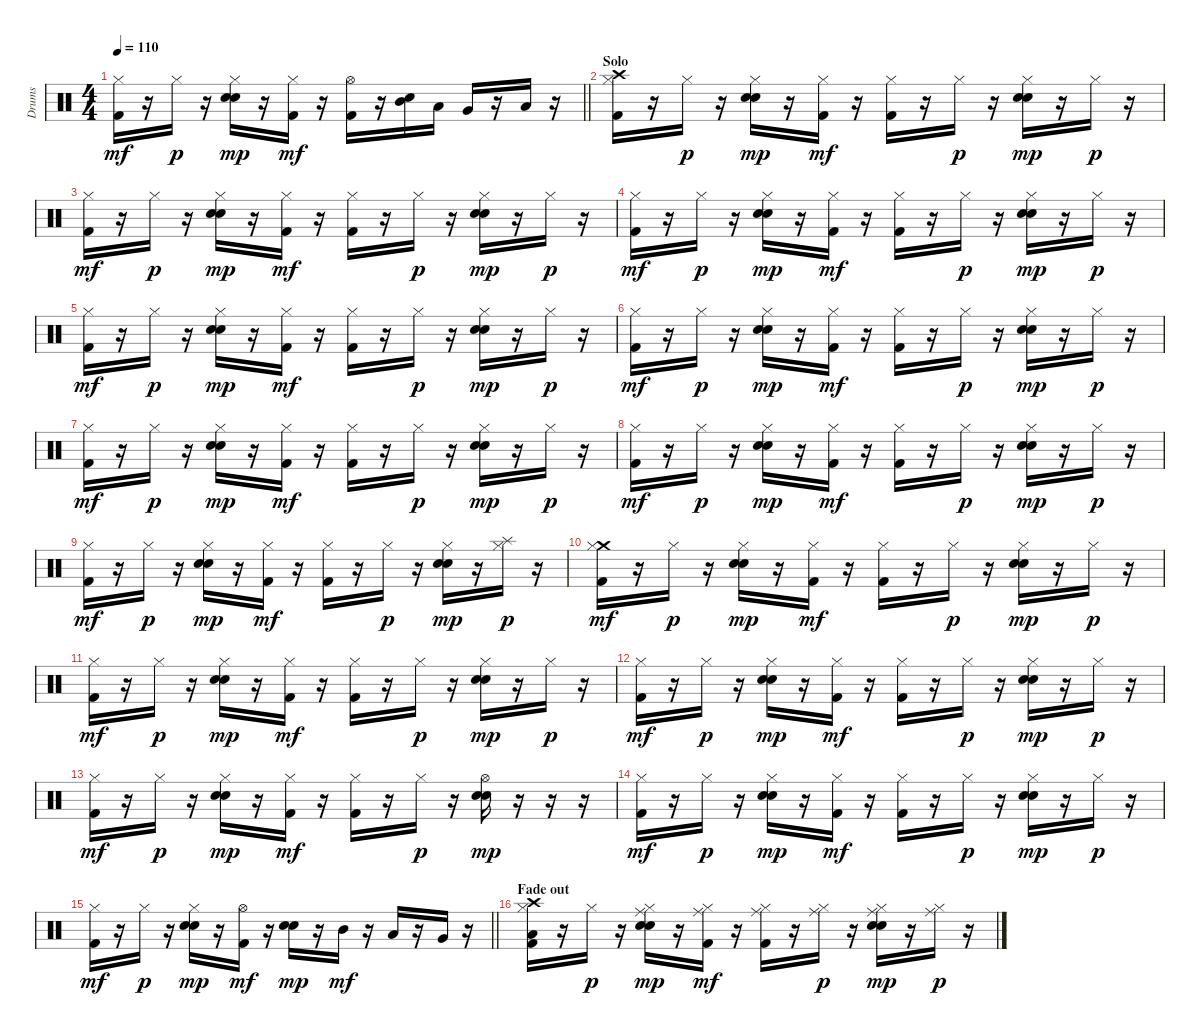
\track ("Drums" "Drums") {instrument percussion}
\staff {score}
\articulation defaults
\ts (4 4)
\tempo 110
\clef neutral
\barLineRight lightlight
\ks c
("Hi-Hat (closed)" "Kick (hit) 2").16{dy mf} r.16 "Hi-Hat (closed)".16{dy p} r.16 ("Hi-Hat (closed)" "Electric Snare (hit)" "Snare (hit) 2").16{dy mp} r.16 ("Hi-Hat (closed)" "Kick (hit) 2").16{dy mf} r.16 ("Hi-Hat (open)" "Kick (hit) 2").16 r.16 ("Electric Snare (hit)" "Mid Tom (hit)").16 "Low Tom (hit)".16 "Very Low Tom (hit)".16 r.16 "Low Floor Tom (hit)".16 r.16 |
\section ("" "Solo")
("Crash high (hit)" "Hi-Hat (closed)" "Kick (hit) 2").16 r.16 "Hi-Hat (closed)".16{dy p} r.16 ("Hi-Hat (closed)" "Electric Snare (hit)" "Snare (hit) 2").16{dy mp} r.16 ("Hi-Hat (closed)" "Kick (hit) 2").16{dy mf} r.16 ("Hi-Hat (closed)" "Kick (hit) 2").16 r.16 "Hi-Hat (closed)".16{dy p} r.16 ("Hi-Hat (closed)" "Electric Snare (hit)" "Snare (hit) 2").16{dy mp} r.16 "Hi-Hat (closed)".16{dy p} r.16 |
("Hi-Hat (closed)" "Kick (hit) 2").16{dy mf} r.16 "Hi-Hat (closed)".16{dy p} r.16 ("Hi-Hat (closed)" "Electric Snare (hit)" "Snare (hit) 2").16{dy mp} r.16 ("Hi-Hat (closed)" "Kick (hit) 2").16{dy mf} r.16 ("Hi-Hat (closed)" "Kick (hit) 2").16 r.16 "Hi-Hat (closed)".16{dy p} r.16 ("Hi-Hat (closed)" "Electric Snare (hit)" "Snare (hit) 2").16{dy mp} r.16 "Hi-Hat (closed)".16{dy p} r.16 |
("Hi-Hat (closed)" "Kick (hit) 2").16{dy mf} r.16 "Hi-Hat (closed)".16{dy p} r.16 ("Hi-Hat (closed)" "Electric Snare (hit)" "Snare (hit) 2").16{dy mp} r.16 ("Hi-Hat (closed)" "Kick (hit) 2").16{dy mf} r.16 ("Hi-Hat (closed)" "Kick (hit) 2").16 r.16 "Hi-Hat (closed)".16{dy p} r.16 ("Hi-Hat (closed)" "Electric Snare (hit)" "Snare (hit) 2").16{dy mp} r.16 "Hi-Hat (closed)".16{dy p} r.16 |
("Hi-Hat (closed)" "Kick (hit) 2").16{dy mf} r.16 "Hi-Hat (closed)".16{dy p} r.16 ("Hi-Hat (closed)" "Electric Snare (hit)" "Snare (hit) 2").16{dy mp} r.16 ("Hi-Hat (closed)" "Kick (hit) 2").16{dy mf} r.16 ("Hi-Hat (closed)" "Kick (hit) 2").16 r.16 "Hi-Hat (closed)".16{dy p} r.16 ("Hi-Hat (closed)" "Electric Snare (hit)" "Snare (hit) 2").16{dy mp} r.16 "Hi-Hat (closed)".16{dy p} r.16 |
("Hi-Hat (closed)" "Kick (hit) 2").16{dy mf} r.16 "Hi-Hat (closed)".16{dy p} r.16 ("Hi-Hat (closed)" "Electric Snare (hit)" "Snare (hit) 2").16{dy mp} r.16 ("Hi-Hat (closed)" "Kick (hit) 2").16{dy mf} r.16 ("Hi-Hat (closed)" "Kick (hit) 2").16 r.16 "Hi-Hat (closed)".16{dy p} r.16 ("Hi-Hat (closed)" "Electric Snare (hit)" "Snare (hit) 2").16{dy mp} r.16 "Hi-Hat (closed)".16{dy p} r.16 |
("Hi-Hat (closed)" "Kick (hit) 2").16{dy mf} r.16 "Hi-Hat (closed)".16{dy p} r.16 ("Hi-Hat (closed)" "Electric Snare (hit)" "Snare (hit) 2").16{dy mp} r.16 ("Hi-Hat (closed)" "Kick (hit) 2").16{dy mf} r.16 ("Hi-Hat (closed)" "Kick (hit) 2").16 r.16 "Hi-Hat (closed)".16{dy p} r.16 ("Hi-Hat (closed)" "Electric Snare (hit)" "Snare (hit) 2").16{dy mp} r.16 "Hi-Hat (closed)".16{dy p} r.16 |
("Hi-Hat (closed)" "Kick (hit) 2").16{dy mf} r.16 "Hi-Hat (closed)".16{dy p} r.16 ("Hi-Hat (closed)" "Electric Snare (hit)" "Snare (hit) 2").16{dy mp} r.16 ("Hi-Hat (closed)" "Kick (hit) 2").16{dy mf} r.16 ("Hi-Hat (closed)" "Kick (hit) 2").16 r.16 "Hi-Hat (closed)".16{dy p} r.16 ("Hi-Hat (closed)" "Electric Snare (hit)" "Snare (hit) 2").16{dy mp} r.16 "Hi-Hat (closed)".16{dy p} r.16 |
("Hi-Hat (closed)" "Kick (hit) 2").16{dy mf} r.16 "Hi-Hat (closed)".16{dy p} r.16 ("Hi-Hat (closed)" "Electric Snare (hit)" "Snare (hit) 2").16{dy mp} r.16 ("Hi-Hat (closed)" "Kick (hit) 2").16{dy mf} r.16 ("Hi-Hat (closed)" "Kick (hit) 2").16 r.16 "Hi-Hat (closed)".16{dy p} r.16 ("Hi-Hat (closed)" "Electric Snare (hit)" "Snare (hit) 2").16{dy mp} r.16 ("Splash (hit)" "Hi-Hat (closed)").16{dy p} r.16 |
("Crash medium (hit)" "Hi-Hat (closed)" "Kick (hit) 2").16{dy mf} r.16 "Hi-Hat (closed)".16{dy p} r.16 ("Hi-Hat (closed)" "Electric Snare (hit)" "Snare (hit) 2").16{dy mp} r.16 ("Hi-Hat (closed)" "Kick (hit) 2").16{dy mf} r.16 ("Hi-Hat (closed)" "Kick (hit) 2").16 r.16 "Hi-Hat (closed)".16{dy p} r.16 ("Hi-Hat (closed)" "Electric Snare (hit)" "Snare (hit) 2").16{dy mp} r.16 "Hi-Hat (closed)".16{dy p} r.16 |
("Hi-Hat (closed)" "Kick (hit) 2").16{dy mf} r.16 "Hi-Hat (closed)".16{dy p} r.16 ("Hi-Hat (closed)" "Electric Snare (hit)" "Snare (hit) 2").16{dy mp} r.16 ("Hi-Hat (closed)" "Kick (hit) 2").16{dy mf} r.16 ("Hi-Hat (closed)" "Kick (hit) 2").16 r.16 "Hi-Hat (closed)".16{dy p} r.16 ("Hi-Hat (closed)" "Electric Snare (hit)" "Snare (hit) 2").16{dy mp} r.16 "Hi-Hat (closed)".16{dy p} r.16 |
("Hi-Hat (closed)" "Kick (hit) 2").16{dy mf} r.16 "Hi-Hat (closed)".16{dy p} r.16 ("Hi-Hat (closed)" "Electric Snare (hit)" "Snare (hit) 2").16{dy mp} r.16 ("Hi-Hat (closed)" "Kick (hit) 2").16{dy mf} r.16 ("Hi-Hat (closed)" "Kick (hit) 2").16 r.16 "Hi-Hat (closed)".16{dy p} r.16 ("Hi-Hat (closed)" "Electric Snare (hit)" "Snare (hit) 2").16{dy mp} r.16 "Hi-Hat (closed)".16{dy p} r.16 |
("Hi-Hat (closed)" "Kick (hit) 2").16{dy mf} r.16 "Hi-Hat (closed)".16{dy p} r.16 ("Hi-Hat (closed)" "Electric Snare (hit)" "Snare (hit) 2").16{dy mp} r.16 ("Hi-Hat (closed)" "Kick (hit) 2").16{dy mf} r.16 ("Hi-Hat (closed)" "Kick (hit) 2").16 r.16 "Hi-Hat (closed)".16{dy p} r.16 ("Hi-Hat (open)" "Electric Snare (hit)" "Snare (hit) 2").16{dy mp} r.16 r.16 r.16 |
("Hi-Hat (closed)" "Kick (hit) 2").16{dy mf} r.16 "Hi-Hat (closed)".16{dy p} r.16 ("Hi-Hat (closed)" "Electric Snare (hit)" "Snare (hit) 2").16{dy mp} r.16 ("Hi-Hat (closed)" "Kick (hit) 2").16{dy mf} r.16 ("Hi-Hat (closed)" "Kick (hit) 2").16 r.16 "Hi-Hat (closed)".16{dy p} r.16 ("Hi-Hat (closed)" "Electric Snare (hit)" "Snare (hit) 2").16{dy mp} r.16 "Hi-Hat (closed)".16{dy p} r.16 |
\barLineRight lightlight
("Hi-Hat (closed)" "Kick (hit) 2").16{dy mf} r.16 "Hi-Hat (closed)".16{dy p} r.16 ("Hi-Hat (closed)" "Electric Snare (hit)" "Snare (hit) 2").16{dy mp} r.16 ("Hi-Hat (open)" "Kick (hit) 2").16{dy mf} r.16 ("Electric Snare (hit)" "Snare (hit) 2").16{dy mp} r.16 "Mid Tom (hit)".16{dy mf} r.16 "Low Tom (hit)".16 r.16 "Very Low Tom (hit)".16 r.16 |
\section ("" "Fade out")
("Crash high (hit)" "Hi-Hat (closed)" "Low Floor Tom (hit)" "Kick (hit) 2").16 r.16 "Hi-Hat (closed)".16{dy p} r.16 ("Ride (middle)" "Hi-Hat (closed)" "Electric Snare (hit)" "Snare (hit) 2").16{dy mp} r.16 ("Ride (middle)" "Hi-Hat (closed)" "Kick (hit) 2").16{dy mf} r.16 ("Ride (middle)" "Hi-Hat (closed)" "Kick (hit) 2").16 r.16 ("Ride (middle)" "Hi-Hat (closed)").16{dy p} r.16 ("Ride (middle)" "Hi-Hat (closed)" "Electric Snare (hit)" "Snare (hit) 2").16{dy mp} r.16 ("Ride (middle)" "Hi-Hat (closed)").16{dy p} r.16
